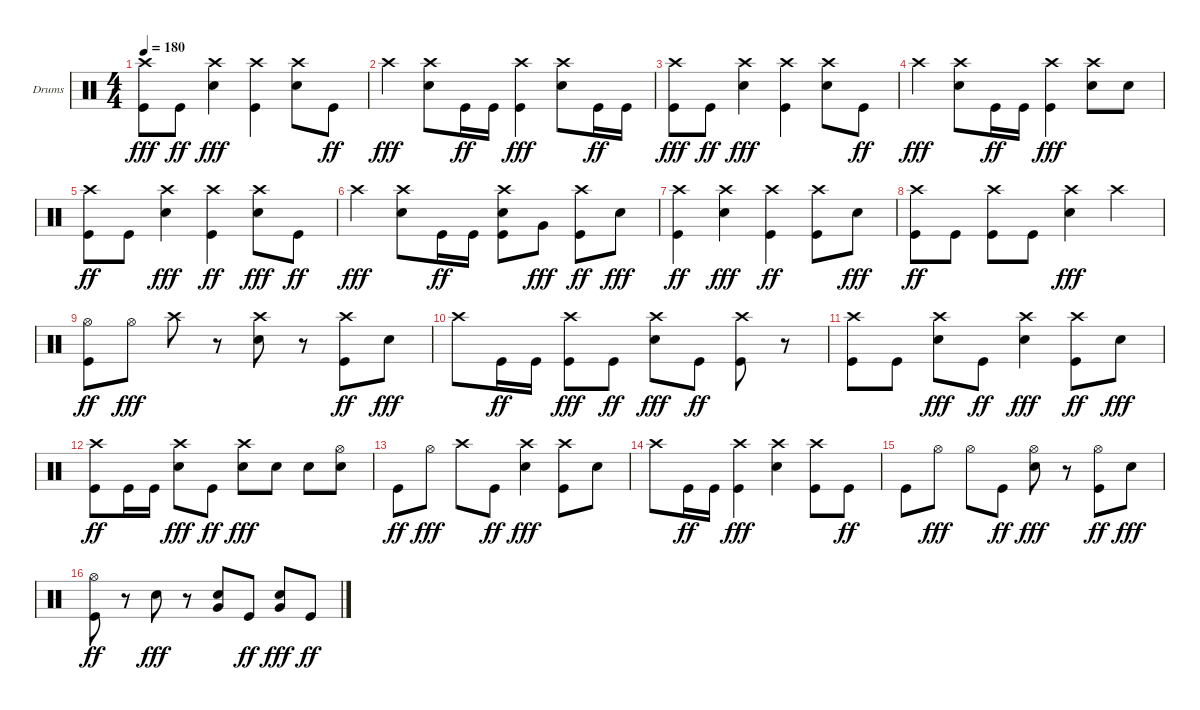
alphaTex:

\bracketExtendMode groupsimilarinstruments
\firstSystemTrackNameOrientation horizontal
\otherSystemsTrackNameOrientation horizontal
\track ("Drumkit" "Drums") {instrument percussion}
\staff {score}
\articulation defaults
\ts (4 4)
\tempo 180
\clef neutral
\ks c
("Crash high (hit)" "Kick (hit)").8{dy fff} "Kick (hit)".8{dy ff} ("Crash high (hit)" "Snare (hit) 2").4{dy fff} ("Crash high (hit)" "Kick (hit)").4 ("Crash high (hit)" "Snare (hit) 2").8 "Kick (hit)".8{dy ff} |
"Crash high (hit)".4{dy fff} ("Crash high (hit)" "Snare (hit) 2").8 "Kick (hit)".16{dy ff} "Kick (hit)".16 ("Crash high (hit)" "Kick (hit)").4{dy fff} ("Snare (hit) 2" "Crash high (hit)").8 "Kick (hit)".16{dy ff} "Kick (hit)".16 |
("Crash high (hit)" "Kick (hit)").8{dy fff} "Kick (hit)".8{dy ff} ("Crash high (hit)" "Snare (hit) 2").4{dy fff} ("Crash high (hit)" "Kick (hit)").4 ("Crash high (hit)" "Snare (hit) 2").8 "Kick (hit)".8{dy ff} |
"Crash high (hit)".4{dy fff} ("Crash high (hit)" "Snare (hit) 2").8 "Kick (hit)".16{dy ff} "Kick (hit)".16 ("Crash high (hit)" "Kick (hit)").4{dy fff} ("Crash high (hit)" "Snare (hit) 2").8 "Snare (hit) 2".8 |
("Kick (hit)" "Crash high (hit)").8{dy ff} "Kick (hit)".8 ("Snare (hit) 2" "Crash high (hit)").4{dy fff} ("Kick (hit)" "Crash high (hit)").4{dy ff} ("Snare (hit) 2" "Crash high (hit)").8{dy fff} "Kick (hit)".8{dy ff} |
"Crash high (hit)".4{dy fff} ("Snare (hit) 2" "Crash high (hit)").8 "Kick (hit)".16{dy ff} "Kick (hit)".16 ("Kick (hit)" "Snare (hit) 2" "Crash high (hit)").8 "Very Low Tom (hit)".8{dy fff} ("Kick (hit)" "Crash high (hit)").8{dy ff} "Snare (hit) 2".8{dy fff} |
("Kick (hit)" "Crash high (hit)").4{dy ff} ("Snare (hit) 2" "Crash high (hit)").4{dy fff} ("Kick (hit)" "Crash high (hit)").4{dy ff} ("Kick (hit)" "Crash high (hit)").8 "Snare (hit) 2".8{dy fff} |
("Kick (hit)" "Crash high (hit)").8{dy ff} "Kick (hit)".8 ("Kick (hit)" "Crash high (hit)").8 "Kick (hit)".8 ("Snare (hit) 2" "Crash high (hit)").4{dy fff} "Crash high (hit)".4 |
("Kick (hit)" "Hi-Hat (open)").8{dy ff} "Hi-Hat (open)".8{dy fff} "Crash high (hit)".8 r.8 ("Crash high (hit)" "Snare (hit) 2").8 r.8 ("Kick (hit)" "Crash high (hit)").8{dy ff} "Snare (hit) 2".8{dy fff} |
"Crash high (hit)".8 "Kick (hit)".16{dy ff} "Kick (hit)".16 ("Crash high (hit)" "Kick (hit)").8{dy fff} "Kick (hit)".8{dy ff} ("Crash high (hit)" "Snare (hit) 2").8{dy fff} "Kick (hit)".8{dy ff} ("Kick (hit)" "Crash high (hit)").8 r.8 |
("Kick (hit)" "Crash high (hit)").8 "Kick (hit)".8 ("Snare (hit) 2" "Crash high (hit)").8{dy fff} "Kick (hit)".8{dy ff} ("Snare (hit) 2" "Crash high (hit)").4{dy fff} ("Kick (hit)" "Crash high (hit)").8{dy ff} "Snare (hit) 2".8{dy fff} |
("Kick (hit)" "Crash high (hit)").8{dy ff} "Kick (hit)".16 "Kick (hit)".16 ("Snare (hit) 2" "Crash high (hit)").8{dy fff} "Kick (hit)".8{dy ff} ("Snare (hit) 2" "Crash high (hit)").8{dy fff} "Snare (hit) 2".8 "Snare (hit) 2".8 ("Hi-Hat (open)" "Snare (hit) 2").8 |
"Kick (hit)".8{dy ff} "Hi-Hat (open)".8{dy fff} "Crash high (hit)".8 "Kick (hit)".8{dy ff} ("Crash high (hit)" "Snare (hit) 2").4{dy fff} ("Crash high (hit)" "Kick (hit)").8 "Snare (hit) 2".8 |
"Crash high (hit)".8 "Kick (hit)".16{dy ff} "Kick (hit)".16 ("Crash high (hit)" "Kick (hit)").4{dy fff} ("Crash high (hit)" "Snare (hit) 2").4 ("Crash high (hit)" "Kick (hit)").8 "Kick (hit)".8{dy ff} |
"Kick (hit)".8 "Hi-Hat (open)".8{dy fff} "Hi-Hat (open)".8 "Kick (hit)".8{dy ff} ("Snare (hit) 2" "Hi-Hat (open)").8{dy fff} r.8 ("Kick (hit)" "Hi-Hat (open)").8{dy ff} "Snare (hit) 2".8{dy fff} |
("Kick (hit)" "Hi-Hat (open)").8{dy ff} r.8 "Snare (hit) 2".8{dy fff} r.8 ("Snare (hit) 2" "Very Low Tom (hit)").8 "Kick (hit)".8{dy ff} ("Snare (hit) 2" "Very Low Tom (hit)").8{dy fff} "Kick (hit)".8{dy ff}
